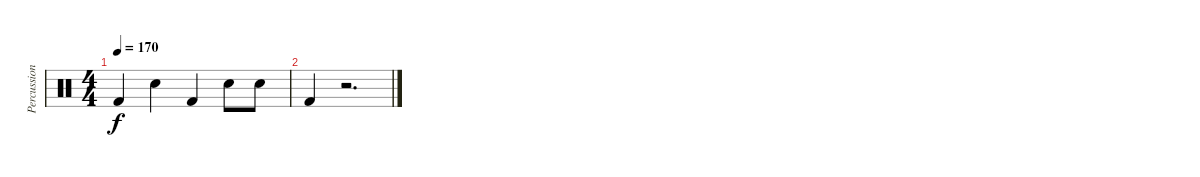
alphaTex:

\track ("Percussions" "Percussion") {instrument percussion}
\staff {score}
\articulation defaults
\ts (4 4)
\tempo 170
\clef neutral
\ks c "Kick (hit) 2".4{dy f} "Electric Snare (hit)".4 "Kick (hit) 2".4 "Electric Snare (hit)".8 "Electric Snare (hit)".8
|
"Kick (hit) 2".4 r.2{d}
